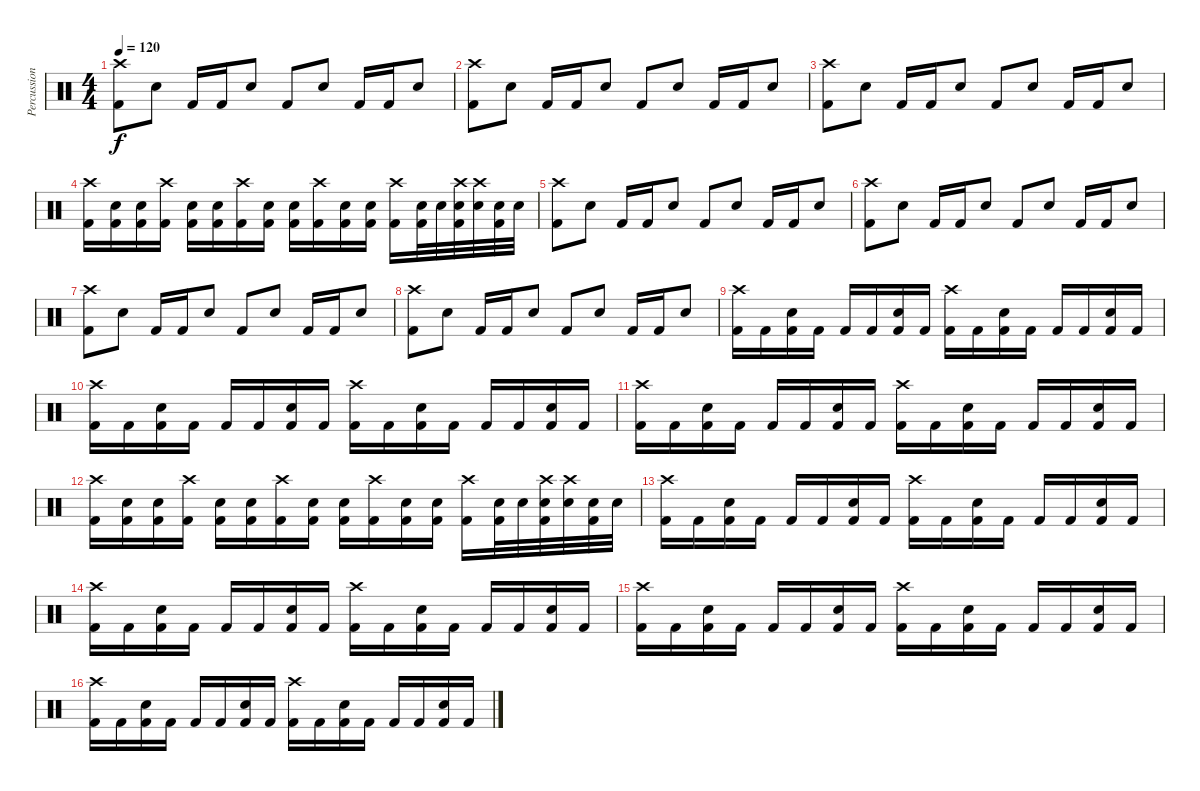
\track ("Percussion" "Percussion") {instrument percussion}
\staff {score}
\articulation defaults
\ts (4 4)
\tempo 120
\clef neutral
\ks c
("Crash high (hit)" "Kick (hit) 2").8{dy f} "Snare (hit) 2".8 "Kick (hit) 2".16 "Kick (hit) 2".16 "Snare (hit) 2".8 "Kick (hit) 2".8 "Snare (hit) 2".8 "Kick (hit) 2".16 "Kick (hit) 2".16 "Snare (hit) 2".8 |
("Crash high (hit)" "Kick (hit) 2").8 "Snare (hit) 2".8 "Kick (hit) 2".16 "Kick (hit) 2".16 "Snare (hit) 2".8 "Kick (hit) 2".8 "Snare (hit) 2".8 "Kick (hit) 2".16 "Kick (hit) 2".16 "Snare (hit) 2".8 |
("Crash high (hit)" "Kick (hit) 2").8 "Snare (hit) 2".8 "Kick (hit) 2".16 "Kick (hit) 2".16 "Snare (hit) 2".8 "Kick (hit) 2".8 "Snare (hit) 2".8 "Kick (hit) 2".16 "Kick (hit) 2".16 "Snare (hit) 2".8 |
("Crash high (hit)" "Kick (hit) 2").16 ("Snare (hit) 2" "Kick (hit) 2").16 ("Snare (hit) 2" "Kick (hit) 2").16 ("Crash high (hit)" "Kick (hit) 2").16 ("Snare (hit) 2" "Kick (hit) 2").16 ("Snare (hit) 2" "Kick (hit) 2").16 ("Crash high (hit)" "Kick (hit) 2").16 ("Snare (hit) 2" "Kick (hit) 2").16 ("Snare (hit) 2" "Kick (hit) 2").16 ("Crash high (hit)" "Kick (hit) 2").16 ("Snare (hit) 2" "Kick (hit) 2").16 ("Snare (hit) 2" "Kick (hit) 2").16 ("Crash high (hit)" "Kick (hit) 2").16 ("Snare (hit) 2" "Kick (hit) 2").32 "Snare (hit) 2".32 ("Crash high (hit)" "Snare (hit) 2" "Kick (hit) 2").32 ("Crash high (hit)" "Snare (hit) 2").32 ("Snare (hit) 2" "Kick (hit) 2").32 "Snare (hit) 2".32 |
("Crash high (hit)" "Kick (hit) 2").8 "Snare (hit) 2".8 "Kick (hit) 2".16 "Kick (hit) 2".16 "Snare (hit) 2".8 "Kick (hit) 2".8 "Snare (hit) 2".8 "Kick (hit) 2".16 "Kick (hit) 2".16 "Snare (hit) 2".8 |
("Crash high (hit)" "Kick (hit) 2").8 "Snare (hit) 2".8 "Kick (hit) 2".16 "Kick (hit) 2".16 "Snare (hit) 2".8 "Kick (hit) 2".8 "Snare (hit) 2".8 "Kick (hit) 2".16 "Kick (hit) 2".16 "Snare (hit) 2".8 |
("Crash high (hit)" "Kick (hit) 2").8 "Snare (hit) 2".8 "Kick (hit) 2".16 "Kick (hit) 2".16 "Snare (hit) 2".8 "Kick (hit) 2".8 "Snare (hit) 2".8 "Kick (hit) 2".16 "Kick (hit) 2".16 "Snare (hit) 2".8 |
("Crash high (hit)" "Kick (hit) 2").8 "Snare (hit) 2".8 "Kick (hit) 2".16 "Kick (hit) 2".16 "Snare (hit) 2".8 "Kick (hit) 2".8 "Snare (hit) 2".8 "Kick (hit) 2".16 "Kick (hit) 2".16 "Snare (hit) 2".8 |
("Crash high (hit)" "Kick (hit) 2").16 "Kick (hit) 2".16 ("Snare (hit) 2" "Kick (hit) 2").16 "Kick (hit) 2".16 "Kick (hit) 2".16 "Kick (hit) 2".16 ("Snare (hit) 2" "Kick (hit) 2").16 "Kick (hit) 2".16 ("Crash high (hit)" "Kick (hit) 2").16 "Kick (hit) 2".16 ("Snare (hit) 2" "Kick (hit) 2").16 "Kick (hit) 2".16 "Kick (hit) 2".16 "Kick (hit) 2".16 ("Snare (hit) 2" "Kick (hit) 2").16 "Kick (hit) 2".16 |
("Crash high (hit)" "Kick (hit) 2").16 "Kick (hit) 2".16 ("Snare (hit) 2" "Kick (hit) 2").16 "Kick (hit) 2".16 "Kick (hit) 2".16 "Kick (hit) 2".16 ("Snare (hit) 2" "Kick (hit) 2").16 "Kick (hit) 2".16 ("Crash high (hit)" "Kick (hit) 2").16 "Kick (hit) 2".16 ("Snare (hit) 2" "Kick (hit) 2").16 "Kick (hit) 2".16 "Kick (hit) 2".16 "Kick (hit) 2".16 ("Snare (hit) 2" "Kick (hit) 2").16 "Kick (hit) 2".16 |
("Crash high (hit)" "Kick (hit) 2").16 "Kick (hit) 2".16 ("Snare (hit) 2" "Kick (hit) 2").16 "Kick (hit) 2".16 "Kick (hit) 2".16 "Kick (hit) 2".16 ("Snare (hit) 2" "Kick (hit) 2").16 "Kick (hit) 2".16 ("Crash high (hit)" "Kick (hit) 2").16 "Kick (hit) 2".16 ("Snare (hit) 2" "Kick (hit) 2").16 "Kick (hit) 2".16 "Kick (hit) 2".16 "Kick (hit) 2".16 ("Snare (hit) 2" "Kick (hit) 2").16 "Kick (hit) 2".16 |
("Crash high (hit)" "Kick (hit) 2").16 ("Snare (hit) 2" "Kick (hit) 2").16 ("Snare (hit) 2" "Kick (hit) 2").16 ("Crash high (hit)" "Kick (hit) 2").16 ("Snare (hit) 2" "Kick (hit) 2").16 ("Snare (hit) 2" "Kick (hit) 2").16 ("Crash high (hit)" "Kick (hit) 2").16 ("Snare (hit) 2" "Kick (hit) 2").16 ("Snare (hit) 2" "Kick (hit) 2").16 ("Crash high (hit)" "Kick (hit) 2").16 ("Snare (hit) 2" "Kick (hit) 2").16 ("Snare (hit) 2" "Kick (hit) 2").16 ("Crash high (hit)" "Kick (hit) 2").16 ("Snare (hit) 2" "Kick (hit) 2").32 "Snare (hit) 2".32 ("Crash high (hit)" "Snare (hit) 2" "Kick (hit) 2").32 ("Crash high (hit)" "Snare (hit) 2").32 ("Snare (hit) 2" "Kick (hit) 2").32 "Snare (hit) 2".32 |
("Crash high (hit)" "Kick (hit) 2").16 "Kick (hit) 2".16 ("Snare (hit) 2" "Kick (hit) 2").16 "Kick (hit) 2".16 "Kick (hit) 2".16 "Kick (hit) 2".16 ("Snare (hit) 2" "Kick (hit) 2").16 "Kick (hit) 2".16 ("Crash high (hit)" "Kick (hit) 2").16 "Kick (hit) 2".16 ("Snare (hit) 2" "Kick (hit) 2").16 "Kick (hit) 2".16 "Kick (hit) 2".16 "Kick (hit) 2".16 ("Snare (hit) 2" "Kick (hit) 2").16 "Kick (hit) 2".16 |
("Crash high (hit)" "Kick (hit) 2").16 "Kick (hit) 2".16 ("Snare (hit) 2" "Kick (hit) 2").16 "Kick (hit) 2".16 "Kick (hit) 2".16 "Kick (hit) 2".16 ("Snare (hit) 2" "Kick (hit) 2").16 "Kick (hit) 2".16 ("Crash high (hit)" "Kick (hit) 2").16 "Kick (hit) 2".16 ("Snare (hit) 2" "Kick (hit) 2").16 "Kick (hit) 2".16 "Kick (hit) 2".16 "Kick (hit) 2".16 ("Snare (hit) 2" "Kick (hit) 2").16 "Kick (hit) 2".16 |
("Crash high (hit)" "Kick (hit) 2").16 "Kick (hit) 2".16 ("Snare (hit) 2" "Kick (hit) 2").16 "Kick (hit) 2".16 "Kick (hit) 2".16 "Kick (hit) 2".16 ("Snare (hit) 2" "Kick (hit) 2").16 "Kick (hit) 2".16 ("Crash high (hit)" "Kick (hit) 2").16 "Kick (hit) 2".16 ("Snare (hit) 2" "Kick (hit) 2").16 "Kick (hit) 2".16 "Kick (hit) 2".16 "Kick (hit) 2".16 ("Snare (hit) 2" "Kick (hit) 2").16 "Kick (hit) 2".16 |
("Crash high (hit)" "Kick (hit) 2").16 "Kick (hit) 2".16 ("Snare (hit) 2" "Kick (hit) 2").16 "Kick (hit) 2".16 "Kick (hit) 2".16 "Kick (hit) 2".16 ("Snare (hit) 2" "Kick (hit) 2").16 "Kick (hit) 2".16 ("Crash high (hit)" "Kick (hit) 2").16 "Kick (hit) 2".16 ("Snare (hit) 2" "Kick (hit) 2").16 "Kick (hit) 2".16 "Kick (hit) 2".16 "Kick (hit) 2".16 ("Snare (hit) 2" "Kick (hit) 2").16 "Kick (hit) 2".16
